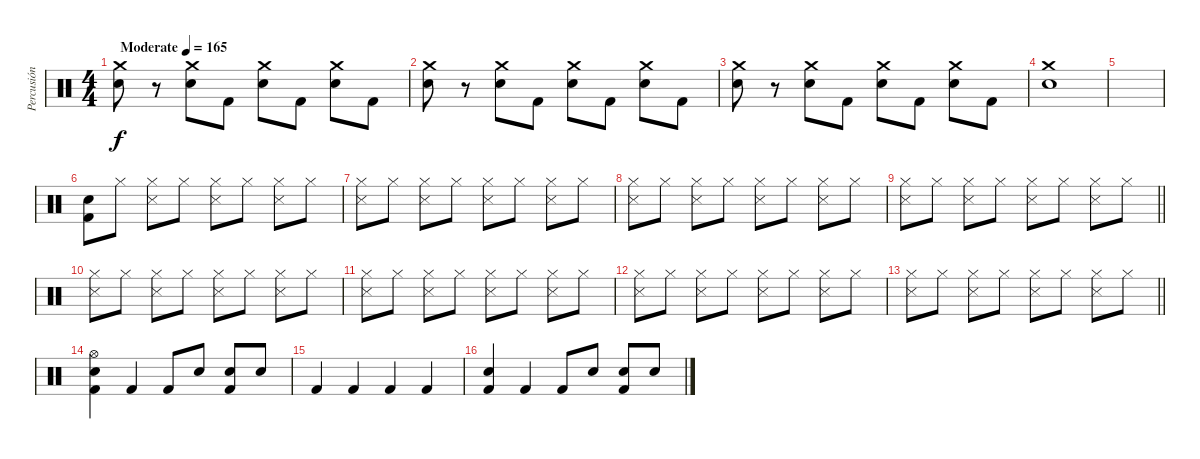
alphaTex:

\track ("Percusión" "Percusión") {instrument percussion}
\staff {score}
\articulation defaults
\ts (4 4)
\tempo (165 "Moderate")
\clef neutral
\ks c
("Snare (hit) 2" "Crash medium (hit)").8{dy f} r.8 ("Snare (hit) 2" "Crash medium (hit)").8 "Kick (hit) 2".8 ("Snare (hit) 2" "Crash medium (hit)").8 "Kick (hit) 2".8 ("Snare (hit) 2" "Crash medium (hit)").8 "Kick (hit) 2".8 |
("Snare (hit) 2" "Crash medium (hit)").8 r.8 ("Snare (hit) 2" "Crash medium (hit)").8 "Kick (hit) 2".8 ("Snare (hit) 2" "Crash medium (hit)").8 "Kick (hit) 2".8 ("Snare (hit) 2" "Crash medium (hit)").8 "Kick (hit) 2".8 |
("Snare (hit) 2" "Crash medium (hit)").8 r.8 ("Snare (hit) 2" "Crash medium (hit)").8 "Kick (hit) 2".8 ("Snare (hit) 2" "Crash medium (hit)").8 "Kick (hit) 2".8 ("Snare (hit) 2" "Crash medium (hit)").8 "Kick (hit) 2".8 |
("Snare (hit) 2" "Crash medium (hit)").1 |
|
("Snare (hit) 2" "Kick (hit) 2").8 "Hi-Hat (closed)".8 ("Hi-Hat (closed)" "Snare (side stick) 3").8 "Hi-Hat (closed)".8 ("Hi-Hat (closed)" "Snare (side stick) 3").8 "Hi-Hat (closed)".8 ("Hi-Hat (closed)" "Snare (side stick) 3").8 "Hi-Hat (closed)".8 |
("Hi-Hat (closed)" "Snare (side stick) 3").8 "Hi-Hat (closed)".8 ("Hi-Hat (closed)" "Snare (side stick) 3").8 "Hi-Hat (closed)".8 ("Hi-Hat (closed)" "Snare (side stick) 3").8 "Hi-Hat (closed)".8 ("Hi-Hat (closed)" "Snare (side stick) 3").8 "Hi-Hat (closed)".8 |
("Hi-Hat (closed)" "Snare (side stick) 3").8 "Hi-Hat (closed)".8 ("Hi-Hat (closed)" "Snare (side stick) 3").8 "Hi-Hat (closed)".8 ("Hi-Hat (closed)" "Snare (side stick) 3").8 "Hi-Hat (closed)".8 ("Hi-Hat (closed)" "Snare (side stick) 3").8 "Hi-Hat (closed)".8 |
\barLineRight lightlight
("Hi-Hat (closed)" "Snare (side stick) 3").8 "Hi-Hat (closed)".8 ("Hi-Hat (closed)" "Snare (side stick) 3").8 "Hi-Hat (closed)".8 ("Hi-Hat (closed)" "Snare (side stick) 3").8 "Hi-Hat (closed)".8 ("Hi-Hat (closed)" "Snare (side stick) 3").8 "Hi-Hat (closed)".8 |
("Hi-Hat (closed)" "Snare (side stick) 3").8 "Hi-Hat (closed)".8 ("Hi-Hat (closed)" "Snare (side stick) 3").8 "Hi-Hat (closed)".8 ("Hi-Hat (closed)" "Snare (side stick) 3").8 "Hi-Hat (closed)".8 ("Hi-Hat (closed)" "Snare (side stick) 3").8 "Hi-Hat (closed)".8 |
("Hi-Hat (closed)" "Snare (side stick) 3").8 "Hi-Hat (closed)".8 ("Hi-Hat (closed)" "Snare (side stick) 3").8 "Hi-Hat (closed)".8 ("Hi-Hat (closed)" "Snare (side stick) 3").8 "Hi-Hat (closed)".8 ("Hi-Hat (closed)" "Snare (side stick) 3").8 "Hi-Hat (closed)".8 |
("Hi-Hat (closed)" "Snare (side stick) 3").8 "Hi-Hat (closed)".8 ("Hi-Hat (closed)" "Snare (side stick) 3").8 "Hi-Hat (closed)".8 ("Hi-Hat (closed)" "Snare (side stick) 3").8 "Hi-Hat (closed)".8 ("Hi-Hat (closed)" "Snare (side stick) 3").8 "Hi-Hat (closed)".8 |
\barLineRight lightlight
("Hi-Hat (closed)" "Snare (side stick) 3").8 "Hi-Hat (closed)".8 ("Hi-Hat (closed)" "Snare (side stick) 3").8 "Hi-Hat (closed)".8 ("Hi-Hat (closed)" "Snare (side stick) 3").8 "Hi-Hat (closed)".8 ("Hi-Hat (closed)" "Snare (side stick) 3").8 "Hi-Hat (closed)".8 |
("Snare (hit) 2" "Kick (hit) 2" "Hi-Hat (open)").4 "Kick (hit) 2".4 "Kick (hit) 2".8 "Snare (hit) 2".8 ("Snare (hit) 2" "Kick (hit) 2").8 "Snare (hit) 2".8 |
"Kick (hit) 2".4 "Kick (hit) 2".4 "Kick (hit) 2".4 "Kick (hit) 2".4 |
("Snare (hit) 2" "Kick (hit) 2").4 "Kick (hit) 2".4 "Kick (hit) 2".8 "Snare (hit) 2".8 ("Snare (hit) 2" "Kick (hit) 2").8 "Snare (hit) 2".8
